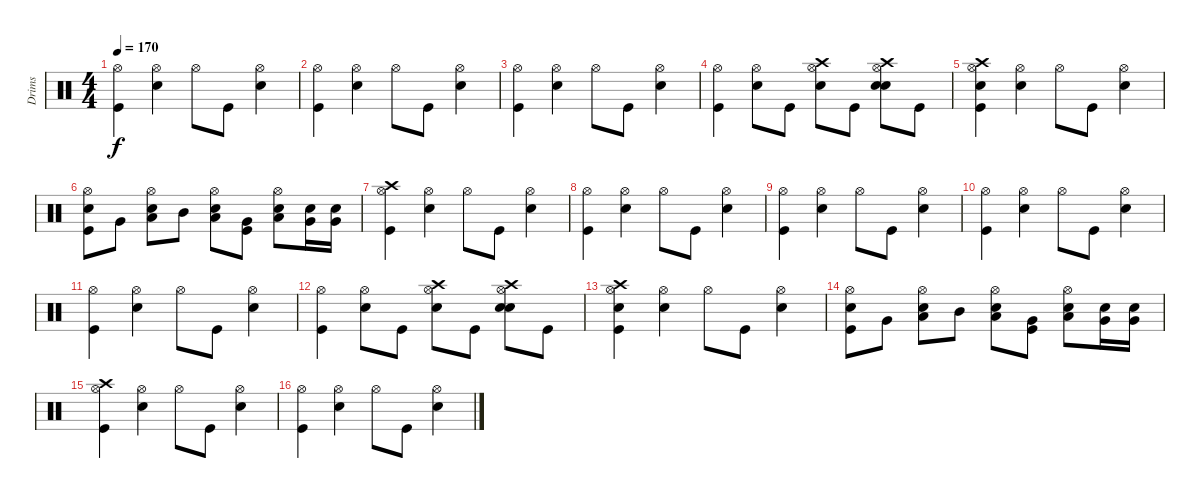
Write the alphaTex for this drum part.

\track ("Drims" "Drims") {instrument percussion}
\staff {score}
\articulation defaults
\ts (4 4)
\tempo 170
\clef neutral
\ks c
("Hi-Hat (open)" "Kick (hit)").4{dy f} ("Hi-Hat (open)" "Electric Snare (hit)").4 "Hi-Hat (open)".8 "Kick (hit)".8 ("Hi-Hat (open)" "Electric Snare (hit)").4 |
("Hi-Hat (open)" "Kick (hit)").4 ("Hi-Hat (open)" "Electric Snare (hit)").4 "Hi-Hat (open)".8 "Kick (hit)".8 ("Hi-Hat (open)" "Electric Snare (hit)").4 |
("Hi-Hat (open)" "Kick (hit)").4 ("Hi-Hat (open)" "Electric Snare (hit)").4 "Hi-Hat (open)".8 "Kick (hit)".8 ("Hi-Hat (open)" "Electric Snare (hit)").4 |
("Hi-Hat (open)" "Kick (hit)").4 ("Hi-Hat (open)" "Electric Snare (hit)").8 "Kick (hit)".8 ("Hi-Hat (open)" "Crash high (hit)" "Electric Snare (hit)").8 "Kick (hit)".8 ("Hi-Hat (open)" "Crash high (hit)" "Electric Snare (hit)" "Electric Snare (hit)").8 "Kick (hit)".8 |
("Hi-Hat (open)" "Crash high (hit)" "Electric Snare (hit)" "Kick (hit)").4 ("Hi-Hat (open)" "Electric Snare (hit)").4 "Hi-Hat (open)".8 "Kick (hit)".8 ("Hi-Hat (open)" "Electric Snare (hit)").4 |
("Hi-Hat (open)" "Electric Snare (hit)" "Kick (hit)").8 "Very Low Tom (hit)".8 ("Hi-Hat (open)" "Electric Snare (hit)" "Low Tom (hit)").8 "Mid Tom (hit)".8 ("Hi-Hat (open)" "Electric Snare (hit)" "Low Tom (hit)").8 ("Very Low Tom (hit)" "Kick (hit)").8 ("Hi-Hat (open)" "Electric Snare (hit)" "Low Floor Tom (hit)").8 ("Electric Snare (hit)" "Very Low Tom (hit)").16 ("Electric Snare (hit)" "Very Low Tom (hit)").16 |
("Hi-Hat (open)" "Crash high (hit)" "Kick (hit)").4 ("Hi-Hat (open)" "Electric Snare (hit)").4 "Hi-Hat (open)".8 "Kick (hit)".8 ("Hi-Hat (open)" "Electric Snare (hit)").4 |
("Hi-Hat (open)" "Kick (hit)").4 ("Hi-Hat (open)" "Electric Snare (hit)").4 "Hi-Hat (open)".8 "Kick (hit)".8 ("Hi-Hat (open)" "Electric Snare (hit)").4 |
("Hi-Hat (open)" "Kick (hit)").4 ("Hi-Hat (open)" "Electric Snare (hit)").4 "Hi-Hat (open)".8 "Kick (hit)".8 ("Hi-Hat (open)" "Electric Snare (hit)").4 |
("Hi-Hat (open)" "Kick (hit)").4 ("Hi-Hat (open)" "Electric Snare (hit)").4 "Hi-Hat (open)".8 "Kick (hit)".8 ("Hi-Hat (open)" "Electric Snare (hit)").4 |
("Hi-Hat (open)" "Kick (hit)").4 ("Hi-Hat (open)" "Electric Snare (hit)").4 "Hi-Hat (open)".8 "Kick (hit)".8 ("Hi-Hat (open)" "Electric Snare (hit)").4 |
("Hi-Hat (open)" "Kick (hit)").4 ("Hi-Hat (open)" "Electric Snare (hit)").8 "Kick (hit)".8 ("Hi-Hat (open)" "Crash high (hit)" "Electric Snare (hit)").8 "Kick (hit)".8 ("Hi-Hat (open)" "Crash high (hit)" "Electric Snare (hit)" "Electric Snare (hit)").8 "Kick (hit)".8 |
("Hi-Hat (open)" "Crash high (hit)" "Electric Snare (hit)" "Kick (hit)").4 ("Hi-Hat (open)" "Electric Snare (hit)").4 "Hi-Hat (open)".8 "Kick (hit)".8 ("Hi-Hat (open)" "Electric Snare (hit)").4 |
("Hi-Hat (open)" "Electric Snare (hit)" "Kick (hit)").8 "Very Low Tom (hit)".8 ("Hi-Hat (open)" "Electric Snare (hit)" "Low Tom (hit)").8 "Mid Tom (hit)".8 ("Hi-Hat (open)" "Electric Snare (hit)" "Low Tom (hit)").8 ("Very Low Tom (hit)" "Kick (hit)").8 ("Hi-Hat (open)" "Electric Snare (hit)" "Low Floor Tom (hit)").8 ("Electric Snare (hit)" "Very Low Tom (hit)").16 ("Electric Snare (hit)" "Very Low Tom (hit)").16 |
("Hi-Hat (open)" "Crash high (hit)" "Kick (hit)").4 ("Hi-Hat (open)" "Electric Snare (hit)").4 "Hi-Hat (open)".8 "Kick (hit)".8 ("Hi-Hat (open)" "Electric Snare (hit)").4 |
("Hi-Hat (open)" "Kick (hit)").4 ("Hi-Hat (open)" "Electric Snare (hit)").4 "Hi-Hat (open)".8 "Kick (hit)".8 ("Hi-Hat (open)" "Electric Snare (hit)").4
